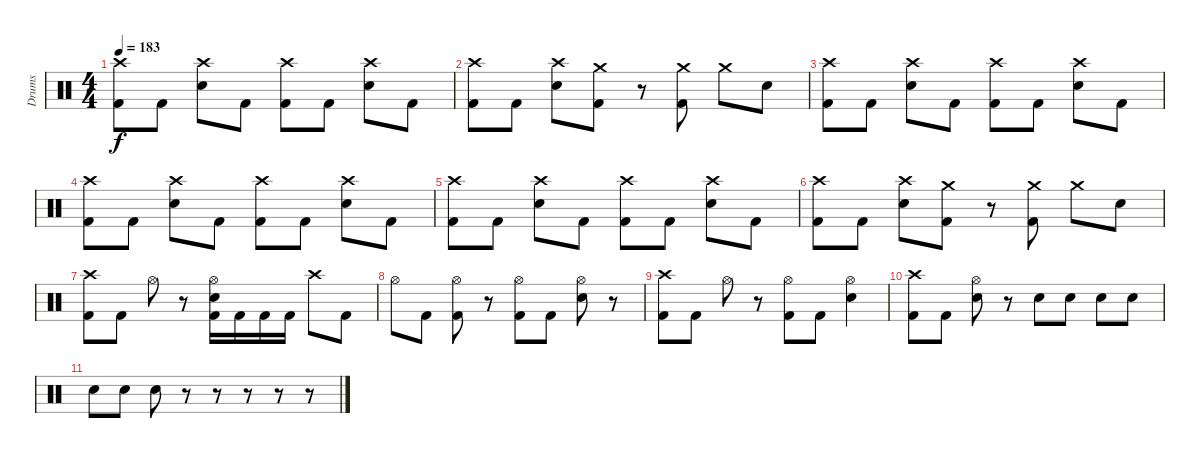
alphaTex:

\track ("Drums" "Drums") {instrument percussion}
\staff {score}
\articulation defaults
\ts (4 4)
\tempo 183
\clef neutral
\ks c
("Crash high (hit)" "Kick (hit) 2").8{dy f} "Kick (hit) 2".8 ("Crash high (hit)" "Snare (hit) 2").8 "Kick (hit) 2".8 ("Crash high (hit)" "Kick (hit) 2").8 "Kick (hit) 2".8 ("Crash high (hit)" "Snare (hit) 2").8 "Kick (hit) 2".8 |
("Crash high (hit)" "Kick (hit) 2").8 "Kick (hit) 2".8 ("Crash high (hit)" "Snare (hit) 2").8 ("Crash medium (hit)" "Kick (hit) 2").8 r.8 ("Crash medium (hit)" "Kick (hit) 2").8 "Crash medium (hit)".8 "Snare (hit) 2".8 |
("Crash high (hit)" "Kick (hit) 2").8 "Kick (hit) 2".8 ("Crash high (hit)" "Snare (hit) 2").8 "Kick (hit) 2".8 ("Crash high (hit)" "Kick (hit) 2").8 "Kick (hit) 2".8 ("Crash high (hit)" "Snare (hit) 2").8 "Kick (hit) 2".8 |
("Crash high (hit)" "Kick (hit) 2").8 "Kick (hit) 2".8 ("Crash high (hit)" "Snare (hit) 2").8 "Kick (hit) 2".8 ("Crash high (hit)" "Kick (hit) 2").8 "Kick (hit) 2".8 ("Crash high (hit)" "Snare (hit) 2").8 "Kick (hit) 2".8 |
("Crash high (hit)" "Kick (hit) 2").8 "Kick (hit) 2".8 ("Crash high (hit)" "Snare (hit) 2").8 "Kick (hit) 2".8 ("Crash high (hit)" "Kick (hit) 2").8 "Kick (hit) 2".8 ("Crash high (hit)" "Snare (hit) 2").8 "Kick (hit) 2".8 |
("Crash high (hit)" "Kick (hit) 2").8 "Kick (hit) 2".8 ("Crash high (hit)" "Snare (hit) 2").8 ("Crash medium (hit)" "Kick (hit) 2").8 r.8 ("Crash medium (hit)" "Kick (hit) 2").8 "Crash medium (hit)".8 "Snare (hit) 2".8 |
("Crash high (hit)" "Kick (hit) 2").8 "Kick (hit) 2".8 "Hi-Hat (open)".8 r.8 ("Hi-Hat (open)" "Snare (hit) 2" "Kick (hit) 2").16 "Kick (hit) 2".16 "Kick (hit) 2".16 "Kick (hit) 2".16 "Crash high (hit)".8 "Kick (hit) 2".8 |
"Hi-Hat (open)".8 "Kick (hit) 2".8 ("Hi-Hat (open)" "Kick (hit) 2").8 r.8 ("Hi-Hat (open)" "Kick (hit) 2").8 "Kick (hit) 2".8 ("Hi-Hat (open)" "Snare (hit) 2").8 r.8 |
("Crash high (hit)" "Kick (hit) 2").8 "Kick (hit) 2".8 "Hi-Hat (open)".8 r.8 ("Kick (hit) 2" "Hi-Hat (open)").8 "Kick (hit) 2".8 ("Snare (hit) 2" "Hi-Hat (open)").4 |
("Crash high (hit)" "Kick (hit) 2").8 "Kick (hit) 2".8 ("Hi-Hat (open)" "Snare (hit) 2").8 r.8 "Snare (hit) 2".8 "Snare (hit) 2".8 "Snare (hit) 2".8 "Snare (hit) 2".8 |
"Snare (hit) 2".8 "Snare (hit) 2".8 "Snare (hit) 2".8 r.8 r.8 r.8 r.8 r.8
